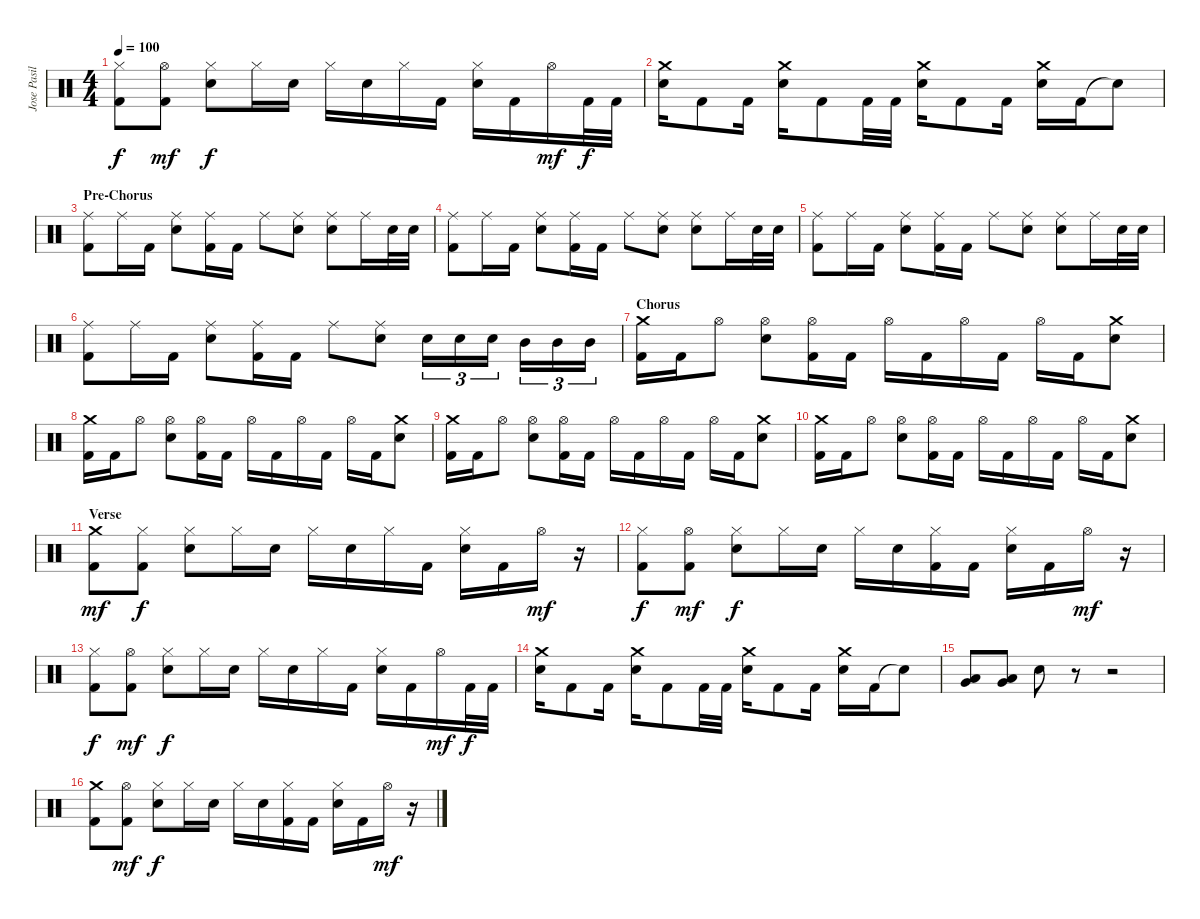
\track ("Jose Pasillas - Drums" "Jose Pasil") {instrument percussion}
\staff {score}
\articulation defaults
\ts (4 4)
\tempo 100
\clef neutral
\ks c
("Hi-Hat (closed)" "Kick (hit) 2").8{dy f} ("Hi-Hat (open)" "Kick (hit) 2").8{dy mf} ("Hi-Hat (closed)" "Electric Snare (hit)").8{dy f} "Hi-Hat (closed)".16 "Electric Snare (hit)".16 "Hi-Hat (closed)".16 "Electric Snare (hit)".16 "Hi-Hat (closed)".16 "Kick (hit) 2".16 ("Hi-Hat (closed)" "Electric Snare (hit)").16 "Kick (hit) 2".16 "Hi-Hat (open)".16{dy mf} "Kick (hit) 2".32{dy f} "Kick (hit) 2".32 |
("Crash medium (hit)" "Electric Snare (hit)").16 "Kick (hit) 2".8 "Kick (hit) 2".16 ("Crash medium (hit)" "Electric Snare (hit)").16 "Kick (hit) 2".8 "Kick (hit) 2".32 "Kick (hit) 2".32 ("Crash medium (hit)" "Electric Snare (hit)").16 "Kick (hit) 2".8 "Kick (hit) 2".16 ("Crash medium (hit)" "Electric Snare (hit)").16 "Kick (hit) 2".16 "Snare (hit)"{t}.8 |
\section ("" "Pre-Chorus")
("Ride (middle)" "Kick (hit) 2").8 "Ride (middle)".16 "Kick (hit) 2".16 ("Ride (middle)" "Electric Snare (hit)").8 ("Ride (middle)" "Kick (hit) 2").16 "Kick (hit) 2".16 "Ride (middle)".8 ("Ride (middle)" "Electric Snare (hit)").8 ("Ride (middle)" "Electric Snare (hit)").8 "Ride (middle)".16 "Electric Snare (hit)".32 "Electric Snare (hit)".32 |
("Ride (middle)" "Kick (hit) 2").8 "Ride (middle)".16 "Kick (hit) 2".16 ("Ride (middle)" "Electric Snare (hit)").8 ("Ride (middle)" "Kick (hit) 2").16 "Kick (hit) 2".16 "Ride (middle)".8 ("Ride (middle)" "Electric Snare (hit)").8 ("Ride (middle)" "Electric Snare (hit)").8 "Ride (middle)".16 "Electric Snare (hit)".32 "Electric Snare (hit)".32 |
("Ride (middle)" "Kick (hit) 2").8 "Ride (middle)".16 "Kick (hit) 2".16 ("Ride (middle)" "Electric Snare (hit)").8 ("Ride (middle)" "Kick (hit) 2").16 "Kick (hit) 2".16 "Ride (middle)".8 ("Ride (middle)" "Electric Snare (hit)").8 ("Ride (middle)" "Electric Snare (hit)").8 "Ride (middle)".16 "Electric Snare (hit)".32 "Electric Snare (hit)".32 |
("Ride (middle)" "Kick (hit) 2").8 "Ride (middle)".16 "Kick (hit) 2".16 ("Ride (middle)" "Electric Snare (hit)").8 ("Ride (middle)" "Kick (hit) 2").16 "Kick (hit) 2".16 "Ride (middle)".8 ("Ride (middle)" "Electric Snare (hit)").8 "Electric Snare (hit)".16{tu (3 2)} "Electric Snare (hit)".16{tu (3 2)} "Electric Snare (hit)".16{tu (3 2)} "Mid Tom (hit)".16{tu (3 2)} "Mid Tom (hit)".16{tu (3 2)} "Mid Tom (hit)".16{tu (3 2)} |
\section ("" "Chorus")
("Crash medium (hit)" "Kick (hit) 2").16 "Kick (hit) 2".16 "Hi-Hat (open)".8 ("Hi-Hat (open)" "Electric Snare (hit)").8 ("Hi-Hat (open)" "Kick (hit) 2").16 "Kick (hit) 2".16 "Hi-Hat (open)".16 "Kick (hit) 2".16 "Hi-Hat (open)".16 "Kick (hit) 2".16 "Hi-Hat (open)".16 "Kick (hit) 2".16 ("Crash medium (hit)" "Electric Snare (hit)").8 |
("Crash medium (hit)" "Kick (hit) 2").16 "Kick (hit) 2".16 "Hi-Hat (open)".8 ("Hi-Hat (open)" "Electric Snare (hit)").8 ("Hi-Hat (open)" "Kick (hit) 2").16 "Kick (hit) 2".16 "Hi-Hat (open)".16 "Kick (hit) 2".16 "Hi-Hat (open)".16 "Kick (hit) 2".16 "Hi-Hat (open)".16 "Kick (hit) 2".16 ("Crash medium (hit)" "Electric Snare (hit)").8 |
("Crash medium (hit)" "Kick (hit) 2").16 "Kick (hit) 2".16 "Hi-Hat (open)".8 ("Hi-Hat (open)" "Electric Snare (hit)").8 ("Hi-Hat (open)" "Kick (hit) 2").16 "Kick (hit) 2".16 "Hi-Hat (open)".16 "Kick (hit) 2".16 "Hi-Hat (open)".16 "Kick (hit) 2".16 "Hi-Hat (open)".16 "Kick (hit) 2".16 ("Crash medium (hit)" "Electric Snare (hit)").8 |
("Crash medium (hit)" "Kick (hit) 2").16 "Kick (hit) 2".16 "Hi-Hat (open)".8 ("Hi-Hat (open)" "Electric Snare (hit)").8 ("Hi-Hat (open)" "Kick (hit) 2").16 "Kick (hit) 2".16 "Hi-Hat (open)".16 "Kick (hit) 2".16 "Hi-Hat (open)".16 "Kick (hit) 2".16 "Hi-Hat (open)".16 "Kick (hit) 2".16 ("Crash medium (hit)" "Electric Snare (hit)").8 |
\section ("" "Verse")
("Crash medium (hit)" "Kick (hit) 2").8{dy mf} ("Hi-Hat (closed)" "Kick (hit) 2").8{dy f} ("Hi-Hat (closed)" "Electric Snare (hit)").8 "Hi-Hat (closed)".16 "Electric Snare (hit)".16 "Hi-Hat (closed)".16 "Electric Snare (hit)".16 "Hi-Hat (closed)".16 "Kick (hit) 2".16 ("Hi-Hat (closed)" "Electric Snare (hit)").16 "Kick (hit) 2".16 "Hi-Hat (open)".16{dy mf} r.16 |
("Hi-Hat (closed)" "Kick (hit) 2").8{dy f} ("Hi-Hat (open)" "Kick (hit) 2").8{dy mf} ("Hi-Hat (closed)" "Electric Snare (hit)").8{dy f} "Hi-Hat (closed)".16 "Electric Snare (hit)".16 "Hi-Hat (closed)".16 "Electric Snare (hit)".16 ("Hi-Hat (closed)" "Kick (hit) 2").16 "Kick (hit) 2".16 ("Hi-Hat (closed)" "Electric Snare (hit)").16 "Kick (hit) 2".16 "Hi-Hat (open)".16{dy mf} r.16 |
("Hi-Hat (closed)" "Kick (hit) 2").8{dy f} ("Hi-Hat (open)" "Kick (hit) 2").8{dy mf} ("Hi-Hat (closed)" "Electric Snare (hit)").8{dy f} "Hi-Hat (closed)".16 "Electric Snare (hit)".16 "Hi-Hat (closed)".16 "Electric Snare (hit)".16 "Hi-Hat (closed)".16 "Kick (hit) 2".16 ("Hi-Hat (closed)" "Electric Snare (hit)").16 "Kick (hit) 2".16 "Hi-Hat (open)".16{dy mf} "Kick (hit) 2".32{dy f} "Kick (hit) 2".32 |
("Crash medium (hit)" "Electric Snare (hit)").16 "Kick (hit) 2".8 "Kick (hit) 2".16 ("Crash medium (hit)" "Electric Snare (hit)").16 "Kick (hit) 2".8 "Kick (hit) 2".32 "Kick (hit) 2".32 ("Crash medium (hit)" "Electric Snare (hit)").16 "Kick (hit) 2".8 "Kick (hit) 2".16 ("Crash medium (hit)" "Electric Snare (hit)").16 "Kick (hit) 2".16 "Snare (hit)"{t}.8 |
("Low Tom (hit)" "Very Low Tom (hit)").8 ("Low Tom (hit)" "Very Low Tom (hit)").8 "Electric Snare (hit)".8 r.8 r.2 |
("Crash medium (hit)" "Kick (hit) 2").8 ("Hi-Hat (open)" "Kick (hit) 2").8{dy mf} ("Hi-Hat (closed)" "Electric Snare (hit)").8{dy f} "Hi-Hat (closed)".16 "Electric Snare (hit)".16 "Hi-Hat (closed)".16 "Electric Snare (hit)".16 ("Hi-Hat (closed)" "Kick (hit) 2").16 "Kick (hit) 2".16 ("Hi-Hat (closed)" "Electric Snare (hit)").16 "Kick (hit) 2".16 "Hi-Hat (open)".16{dy mf} r.16
